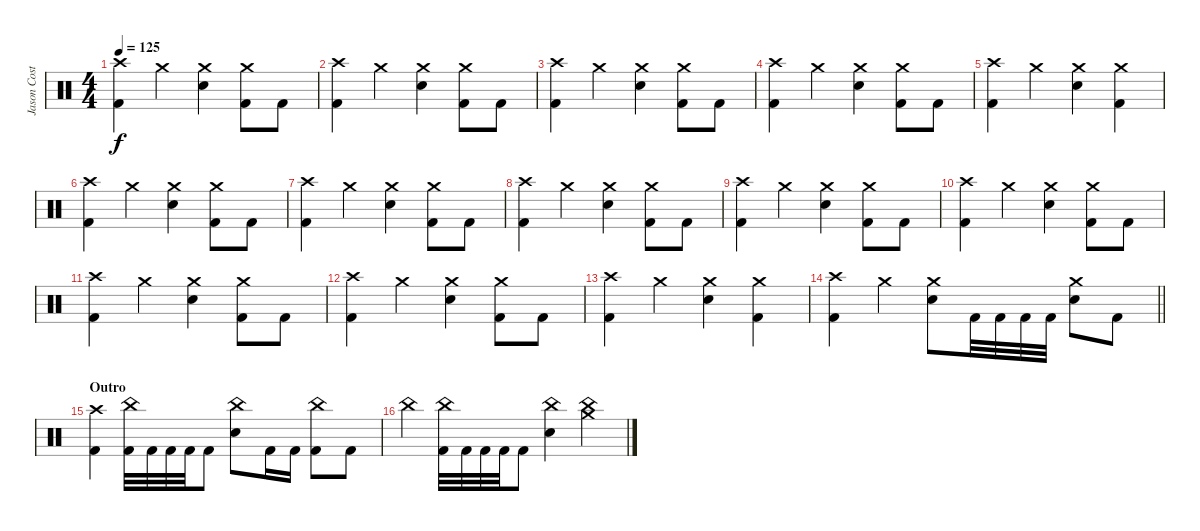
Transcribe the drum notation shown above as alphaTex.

\track ("Jason Costa" "Jason Cost") {instrument percussion}
\staff {score}
\articulation defaults
\ts (4 4)
\tempo 125
\clef neutral
\ks c
("Crash high (hit)" "Kick (hit) 2").4{dy f} "Crash medium (hit)".4 ("Crash medium (hit)" "Electric Snare (hit)").4 ("Crash medium (hit)" "Kick (hit) 2").8 "Kick (hit) 2".8 |
("Crash high (hit)" "Kick (hit) 2").4 "Crash medium (hit)".4 ("Crash medium (hit)" "Electric Snare (hit)").4 ("Crash medium (hit)" "Kick (hit) 2").8 "Kick (hit) 2".8 |
("Crash high (hit)" "Kick (hit) 2").4 "Crash medium (hit)".4 ("Crash medium (hit)" "Electric Snare (hit)").4 ("Crash medium (hit)" "Kick (hit) 2").8 "Kick (hit) 2".8 |
("Crash high (hit)" "Kick (hit) 2").4 "Crash medium (hit)".4 ("Crash medium (hit)" "Electric Snare (hit)").4 ("Crash medium (hit)" "Kick (hit) 2").8 "Kick (hit) 2".8 |
("Crash high (hit)" "Kick (hit) 2").4 "Crash medium (hit)".4 ("Crash medium (hit)" "Electric Snare (hit)").4 ("Crash medium (hit)" "Kick (hit) 2").4 |
("Crash high (hit)" "Kick (hit) 2").4 "Crash medium (hit)".4 ("Crash medium (hit)" "Electric Snare (hit)").4 ("Crash medium (hit)" "Kick (hit) 2").8 "Kick (hit) 2".8 |
("Crash high (hit)" "Kick (hit) 2").4 "Crash medium (hit)".4 ("Crash medium (hit)" "Electric Snare (hit)").4 ("Crash medium (hit)" "Kick (hit) 2").8 "Kick (hit) 2".8 |
("Crash high (hit)" "Kick (hit) 2").4 "Crash medium (hit)".4 ("Crash medium (hit)" "Electric Snare (hit)").4 ("Crash medium (hit)" "Kick (hit) 2").8 "Kick (hit) 2".8 |
("Crash high (hit)" "Kick (hit) 2").4 "Crash medium (hit)".4 ("Crash medium (hit)" "Electric Snare (hit)").4 ("Crash medium (hit)" "Kick (hit) 2").8 "Kick (hit) 2".8 |
("Crash high (hit)" "Kick (hit) 2").4 "Crash medium (hit)".4 ("Crash medium (hit)" "Electric Snare (hit)").4 ("Crash medium (hit)" "Kick (hit) 2").8 "Kick (hit) 2".8 |
("Crash high (hit)" "Kick (hit) 2").4 "Crash medium (hit)".4 ("Crash medium (hit)" "Electric Snare (hit)").4 ("Crash medium (hit)" "Kick (hit) 2").8 "Kick (hit) 2".8 |
("Crash high (hit)" "Kick (hit) 2").4 "Crash medium (hit)".4 ("Crash medium (hit)" "Electric Snare (hit)").4 ("Crash medium (hit)" "Kick (hit) 2").8 "Kick (hit) 2".8 |
("Crash high (hit)" "Kick (hit) 2").4 "Crash medium (hit)".4 ("Crash medium (hit)" "Electric Snare (hit)").4 ("Crash medium (hit)" "Kick (hit) 2").4 |
\barLineRight lightlight
("Crash high (hit)" "Kick (hit) 2").4 "Crash medium (hit)".4 ("Crash medium (hit)" "Electric Snare (hit)").8 "Kick (hit) 2".32 "Kick (hit) 2".32 "Kick (hit) 2".32 "Kick (hit) 2".32 ("Crash medium (hit)" "Electric Snare (hit)").8 "Kick (hit) 2".8 |
\section ("" "Outro")
("Crash high (hit)" "Kick (hit) 2").4 ("China (hit)" "Kick (hit) 2").32 "Kick (hit) 2".32 "Kick (hit) 2".32 "Kick (hit) 2".32 "Kick (hit) 2".8 ("China (hit)" "Electric Snare (hit)").8 "Kick (hit) 2".16 "Kick (hit) 2".16 ("China (hit)" "Kick (hit) 2").8 "Kick (hit) 2".8 |
"China (hit)".4 ("China (hit)" "Kick (hit) 2").32 "Kick (hit) 2".32 "Kick (hit) 2".32 "Kick (hit) 2".32 "Kick (hit) 2".8 ("China (hit)" "Electric Snare (hit)").4 ("China (hit)" "Crash medium (hit)").4
